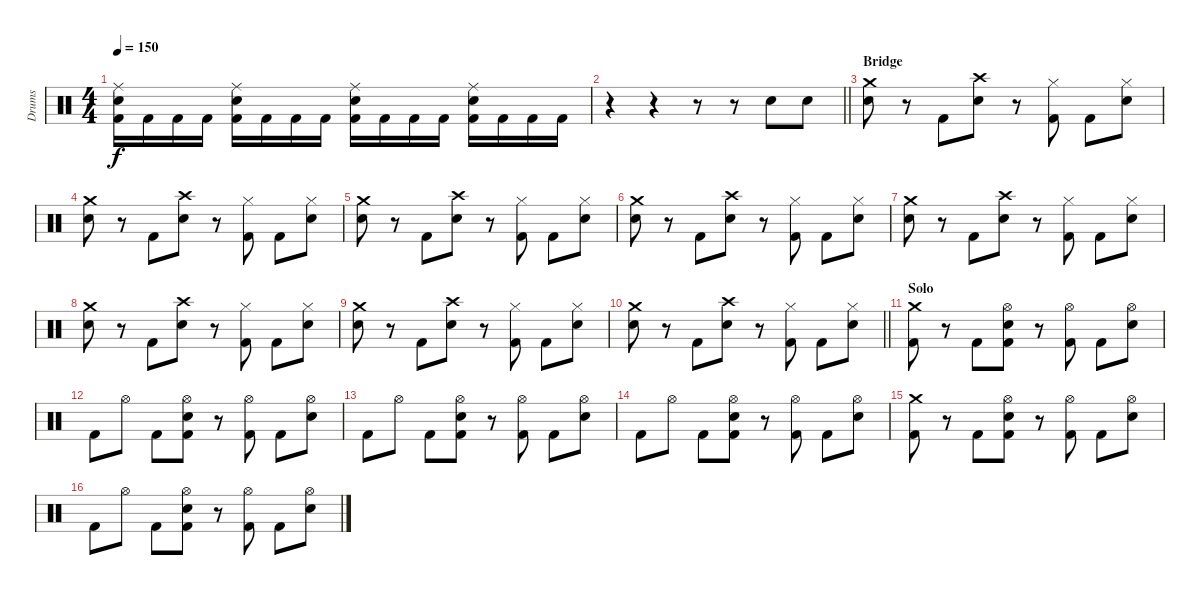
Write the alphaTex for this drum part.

\track ("Drums" "Drums") {instrument percussion}
\staff {score}
\articulation defaults
\ts (4 4)
\tempo 150
\clef neutral
\ks c
("Ride (middle)" "Snare (hit) 2" "Kick (hit) 2").16{dy f} "Kick (hit) 2".16 "Kick (hit) 2".16 "Kick (hit) 2".16 ("Ride (middle)" "Snare (hit) 2" "Kick (hit) 2").16 "Kick (hit) 2".16 "Kick (hit) 2".16 "Kick (hit) 2".16 ("Ride (middle)" "Snare (hit) 2" "Kick (hit) 2").16 "Kick (hit) 2".16 "Kick (hit) 2".16 "Kick (hit) 2".16 ("Ride (middle)" "Snare (hit) 2" "Kick (hit) 2").16 "Kick (hit) 2".16 "Kick (hit) 2".16 "Kick (hit) 2".16 |
\barLineRight lightlight
r.4 r.4 r.8 r.8 "Snare (hit) 2".8 "Snare (hit) 2".8 |
\section ("" "Bridge")
("Crash medium (hit)" "Snare (hit) 2").8 r.8 "Kick (hit) 2".8 ("Crash high (hit)" "Snare (hit) 2").8 r.8 ("Hi-Hat (closed)" "Kick (hit) 2").8 "Kick (hit) 2".8 ("Hi-Hat (closed)" "Snare (hit) 2").8 |
("Crash medium (hit)" "Snare (hit) 2").8 r.8 "Kick (hit) 2".8 ("Crash high (hit)" "Snare (hit) 2").8 r.8 ("Hi-Hat (closed)" "Kick (hit) 2").8 "Kick (hit) 2".8 ("Hi-Hat (closed)" "Snare (hit) 2").8 |
("Crash medium (hit)" "Snare (hit) 2").8 r.8 "Kick (hit) 2".8 ("Crash high (hit)" "Snare (hit) 2").8 r.8 ("Hi-Hat (closed)" "Kick (hit) 2").8 "Kick (hit) 2".8 ("Hi-Hat (closed)" "Snare (hit) 2").8 |
("Crash medium (hit)" "Snare (hit) 2").8 r.8 "Kick (hit) 2".8 ("Crash high (hit)" "Snare (hit) 2").8 r.8 ("Hi-Hat (closed)" "Kick (hit) 2").8 "Kick (hit) 2".8 ("Hi-Hat (closed)" "Snare (hit) 2").8 |
("Crash medium (hit)" "Snare (hit) 2").8 r.8 "Kick (hit) 2".8 ("Crash high (hit)" "Snare (hit) 2").8 r.8 ("Hi-Hat (closed)" "Kick (hit) 2").8 "Kick (hit) 2".8 ("Hi-Hat (closed)" "Snare (hit) 2").8 |
("Crash medium (hit)" "Snare (hit) 2").8 r.8 "Kick (hit) 2".8 ("Crash high (hit)" "Snare (hit) 2").8 r.8 ("Hi-Hat (closed)" "Kick (hit) 2").8 "Kick (hit) 2".8 ("Hi-Hat (closed)" "Snare (hit) 2").8 |
("Crash medium (hit)" "Snare (hit) 2").8 r.8 "Kick (hit) 2".8 ("Crash high (hit)" "Snare (hit) 2").8 r.8 ("Hi-Hat (closed)" "Kick (hit) 2").8 "Kick (hit) 2".8 ("Hi-Hat (closed)" "Snare (hit) 2").8 |
\barLineRight lightlight
("Crash medium (hit)" "Snare (hit) 2").8 r.8 "Kick (hit) 2".8 ("Crash high (hit)" "Snare (hit) 2").8 r.8 ("Hi-Hat (closed)" "Kick (hit) 2").8 "Kick (hit) 2".8 ("Hi-Hat (closed)" "Snare (hit) 2").8 |
\section ("" "Solo")
("Crash medium (hit)" "Kick (hit) 2").8 r.8 "Kick (hit) 2".8 ("Hi-Hat (open)" "Snare (hit) 2" "Kick (hit) 2").8 r.8 ("Hi-Hat (open)" "Kick (hit) 2").8 "Kick (hit) 2".8 ("Hi-Hat (open)" "Snare (hit) 2").8 |
"Kick (hit) 2".8 "Hi-Hat (open)".8 "Kick (hit) 2".8 ("Hi-Hat (open)" "Snare (hit) 2" "Kick (hit) 2").8 r.8 ("Hi-Hat (open)" "Kick (hit) 2").8 "Kick (hit) 2".8 ("Hi-Hat (open)" "Snare (hit) 2").8 |
"Kick (hit) 2".8 "Hi-Hat (open)".8 "Kick (hit) 2".8 ("Hi-Hat (open)" "Snare (hit) 2" "Kick (hit) 2").8 r.8 ("Hi-Hat (open)" "Kick (hit) 2").8 "Kick (hit) 2".8 ("Hi-Hat (open)" "Snare (hit) 2").8 |
"Kick (hit) 2".8 "Hi-Hat (open)".8 "Kick (hit) 2".8 ("Hi-Hat (open)" "Snare (hit) 2" "Kick (hit) 2").8 r.8 ("Hi-Hat (open)" "Kick (hit) 2").8 "Kick (hit) 2".8 ("Hi-Hat (open)" "Snare (hit) 2").8 |
("Crash medium (hit)" "Kick (hit) 2").8 r.8 "Kick (hit) 2".8 ("Hi-Hat (open)" "Snare (hit) 2" "Kick (hit) 2").8 r.8 ("Hi-Hat (open)" "Kick (hit) 2").8 "Kick (hit) 2".8 ("Hi-Hat (open)" "Snare (hit) 2").8 |
"Kick (hit) 2".8 "Hi-Hat (open)".8 "Kick (hit) 2".8 ("Hi-Hat (open)" "Snare (hit) 2" "Kick (hit) 2").8 r.8 ("Hi-Hat (open)" "Kick (hit) 2").8 "Kick (hit) 2".8 ("Hi-Hat (open)" "Snare (hit) 2").8
